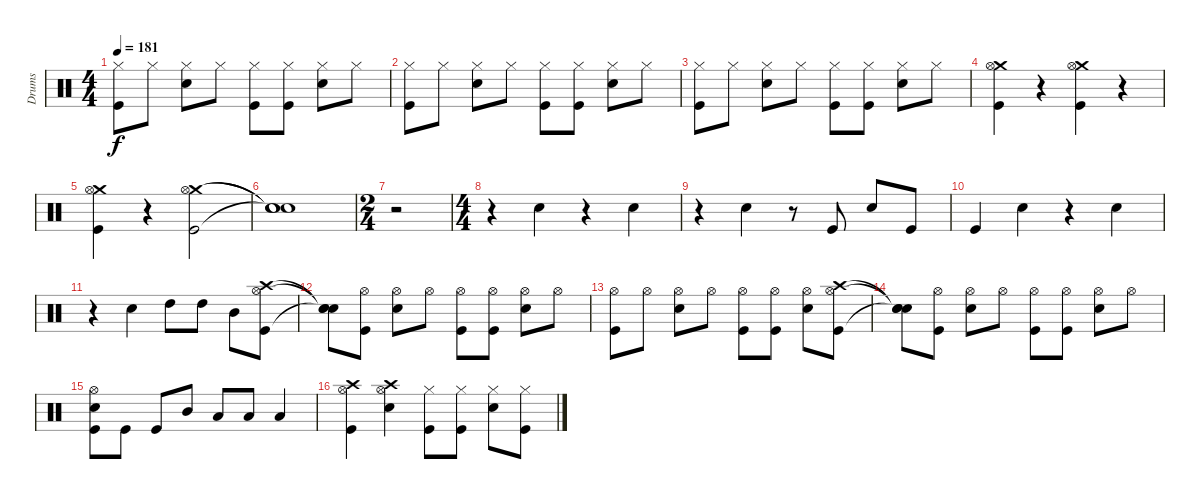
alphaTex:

\track ("Drums" "Drums") {instrument percussion}
\staff {score}
\articulation defaults
\ts (4 4)
\tempo 181
\clef neutral
\ks c
("Hi-Hat (closed)" "Kick (hit)").8{dy f} "Hi-Hat (closed)".8 ("Hi-Hat (closed)" "Snare (hit) 2").8 "Hi-Hat (closed)".8 ("Hi-Hat (closed)" "Kick (hit)").8 ("Hi-Hat (closed)" "Kick (hit)").8 ("Hi-Hat (closed)" "Snare (hit) 2").8 "Hi-Hat (closed)".8 |
("Hi-Hat (closed)" "Kick (hit)").8 "Hi-Hat (closed)".8 ("Hi-Hat (closed)" "Snare (hit) 2").8 "Hi-Hat (closed)".8 ("Hi-Hat (closed)" "Kick (hit)").8 ("Hi-Hat (closed)" "Kick (hit)").8 ("Hi-Hat (closed)" "Snare (hit) 2").8 "Hi-Hat (closed)".8 |
("Hi-Hat (closed)" "Kick (hit)").8 "Hi-Hat (closed)".8 ("Hi-Hat (closed)" "Snare (hit) 2").8 "Hi-Hat (closed)".8 ("Hi-Hat (closed)" "Kick (hit)").8 ("Hi-Hat (closed)" "Kick (hit)").8 ("Hi-Hat (closed)" "Snare (hit) 2").8 "Hi-Hat (closed)".8 |
("Crash medium (hit)" "Hi-Hat (open)" "Kick (hit)").4 r.4 ("Crash medium (hit)" "Hi-Hat (open)" "Kick (hit)").4 r.4 |
("Crash medium (hit)" "Hi-Hat (open)" "Kick (hit)").4 r.4 ("Crash medium (hit)" "Hi-Hat (open)" "Kick (hit)").2 |
("Snare (hit)"{t} "Snare (hit)"{t} "Snare (hit)"{t}).1 |
\ts (2 4)
r.2 |
\ts (4 4)
r.4 "Snare (hit) 2".4 r.4 "Snare (hit) 2".4 |
r.4 "Snare (hit) 2".4 r.8 "Kick (hit)".8 "Snare (hit) 2".8 "Kick (hit)".8 |
"Kick (hit)".4 "Snare (hit) 2".4 r.4 "Snare (hit) 2".4 |
r.4 "Snare (hit) 2".4 "High Tom (hit)".8 "High Tom (hit)".8 "Mid Tom (hit)".8 ("Crash high (hit)" "Hi-Hat (open)" "Kick (hit)").8 |
("Snare (hit)"{t} "Snare (hit)"{t} "Snare (hit)"{t}).8 ("Hi-Hat (open)" "Kick (hit)").8 ("Hi-Hat (open)" "Snare (hit) 2").8 "Hi-Hat (open)".8 ("Hi-Hat (open)" "Kick (hit)").8 ("Hi-Hat (open)" "Kick (hit)").8 ("Hi-Hat (open)" "Snare (hit) 2").8 "Hi-Hat (open)".8 |
("Hi-Hat (open)" "Kick (hit)").8 "Hi-Hat (open)".8 ("Hi-Hat (open)" "Snare (hit) 2").8 "Hi-Hat (open)".8 ("Hi-Hat (open)" "Kick (hit)").8 ("Hi-Hat (open)" "Kick (hit)").8 ("Hi-Hat (open)" "Snare (hit) 2").8 ("Crash high (hit)" "Hi-Hat (open)" "Kick (hit)").8 |
("Snare (hit)"{t} "Snare (hit)"{t} "Snare (hit)"{t}).8 ("Hi-Hat (open)" "Kick (hit)").8 ("Hi-Hat (open)" "Snare (hit) 2").8 "Hi-Hat (open)".8 ("Hi-Hat (open)" "Kick (hit)").8 ("Hi-Hat (open)" "Kick (hit)").8 ("Hi-Hat (open)" "Snare (hit) 2").8 "Hi-Hat (open)".8 |
("Hi-Hat (open)" "Snare (hit) 2" "Kick (hit)").8 "Kick (hit)".8 "Kick (hit)".8 "Mid Tom (hit)".8 "Low Tom (hit)".8 "Low Tom (hit)".8 "Low Tom (hit)".4 |
("Crash high (hit)" "Hi-Hat (open)" "Kick (hit)").4 ("Crash high (hit)" "Hi-Hat (open)" "Snare (hit) 2").4 ("Hi-Hat (closed)" "Kick (hit)").8 ("Hi-Hat (closed)" "Kick (hit)").8 ("Hi-Hat (closed)" "Snare (hit) 2").8 ("Hi-Hat (closed)" "Kick (hit)").8
